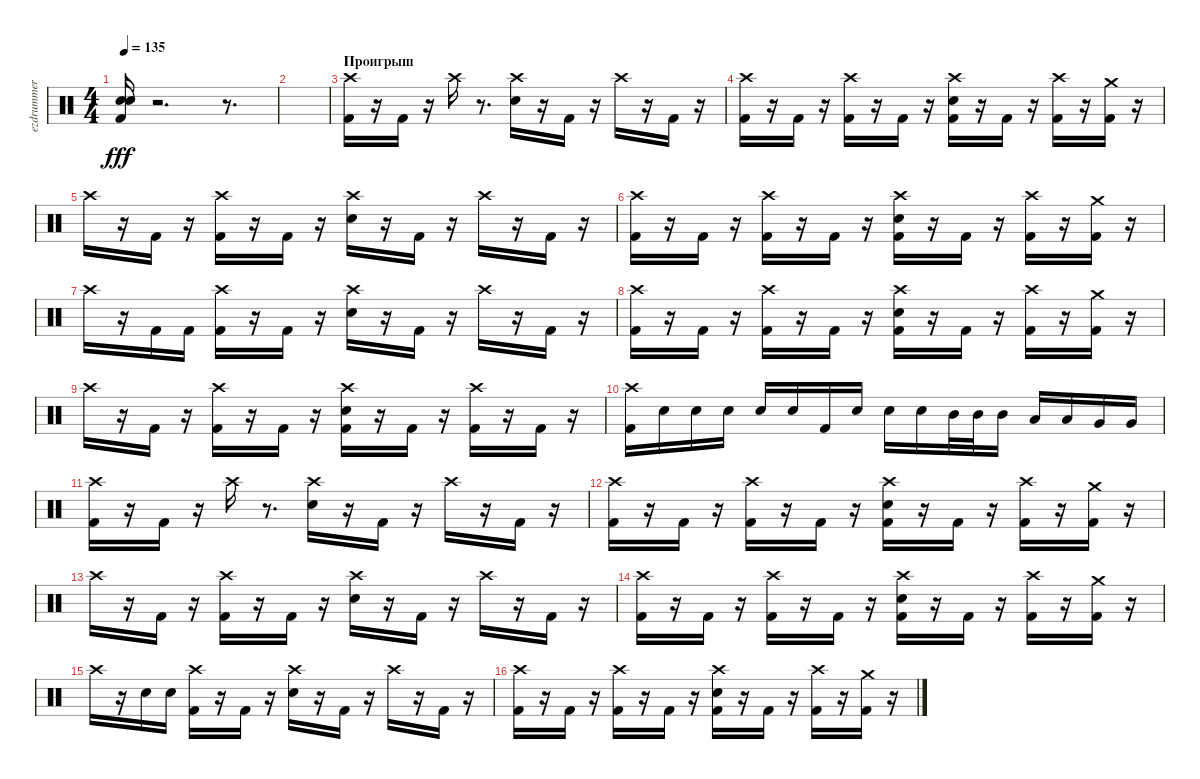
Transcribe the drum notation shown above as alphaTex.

\track ("ezdrummer 01" "ezdrummer ") {instrument percussion}
\staff {score}
\articulation defaults
\ts (4 4)
\tempo 135
\clef neutral
\ks c
("Snare (hit) 2" "Kick (hit) 2" "Snare (hit) 2").16{dy fff} r.2{d} r.8{d} |
|
\section ("" "Проигрыш")
("Kick (hit) 2" "Crash high (hit)").16 r.16 "Kick (hit) 2".16 r.16 "Crash high (hit)".16 r.8{d} ("Snare (hit) 2" "Crash high (hit)").16 r.16 "Kick (hit) 2".16 r.16 "Crash high (hit)".16 r.16 "Kick (hit) 2".16 r.16 |
("Kick (hit) 2" "Crash high (hit)").16 r.16 "Kick (hit) 2".16 r.16 ("Kick (hit) 2" "Crash high (hit)").16 r.16 "Kick (hit) 2".16 r.16 ("Kick (hit) 2" "Snare (hit) 2" "Crash high (hit)").16 r.16 "Kick (hit) 2".16 r.16 ("Kick (hit) 2" "Crash high (hit)").16 r.16 ("Kick (hit) 2" "Crash medium (hit)").16 r.16 |
"Crash high (hit)".16 r.16 "Kick (hit) 2".16 r.16 ("Kick (hit) 2" "Crash high (hit)").16 r.16 "Kick (hit) 2".16 r.16 ("Snare (hit) 2" "Crash high (hit)").16 r.16 "Kick (hit) 2".16 r.16 "Crash high (hit)".16 r.16 "Kick (hit) 2".16 r.16 |
("Kick (hit) 2" "Crash high (hit)").16 r.16 "Kick (hit) 2".16 r.16 ("Kick (hit) 2" "Crash high (hit)").16 r.16 "Kick (hit) 2".16 r.16 ("Kick (hit) 2" "Snare (hit) 2" "Crash high (hit)").16 r.16 "Kick (hit) 2".16 r.16 ("Kick (hit) 2" "Crash high (hit)").16 r.16 ("Kick (hit) 2" "Crash medium (hit)").16 r.16 |
"Crash high (hit)".16 r.16 "Kick (hit) 2".16 "Kick (hit) 2".16 ("Kick (hit) 2" "Crash high (hit)").16 r.16 "Kick (hit) 2".16 r.16 ("Snare (hit) 2" "Crash high (hit)").16 r.16 "Kick (hit) 2".16 r.16 "Crash high (hit)".16 r.16 "Kick (hit) 2".16 r.16 |
("Kick (hit) 2" "Crash high (hit)").16 r.16 "Kick (hit) 2".16 r.16 ("Kick (hit) 2" "Crash high (hit)").16 r.16 "Kick (hit) 2".16 r.16 ("Kick (hit) 2" "Snare (hit) 2" "Crash high (hit)").16 r.16 "Kick (hit) 2".16 r.16 ("Kick (hit) 2" "Crash high (hit)").16 r.16 ("Kick (hit) 2" "Crash medium (hit)").16 r.16 |
"Crash high (hit)".16 r.16 "Kick (hit) 2".16 r.16 ("Kick (hit) 2" "Crash high (hit)").16 r.16 "Kick (hit) 2".16 r.16 ("Kick (hit) 2" "Snare (hit) 2" "Crash high (hit)").16 r.16 "Kick (hit) 2".16 r.16 ("Kick (hit) 2" "Crash high (hit)").16 r.16 "Kick (hit) 2".16 r.16 |
("Kick (hit) 2" "Crash high (hit)").16 "Snare (hit) 2".16 "Snare (hit) 2".16 "Snare (hit) 2".16 "Snare (hit) 2".16 "Snare (hit) 2".16 "Kick (hit) 2".16 "Snare (hit) 2".16 "Snare (hit) 2".16 "Snare (hit) 2".16 "Mid Tom (hit)".32 "Mid Tom (hit)".32 "Mid Tom (hit)".16 "Low Tom (hit)".16 "Low Tom (hit)".16 "Very Low Tom (hit)".16 "Very Low Tom (hit)".16 |
("Kick (hit) 2" "Crash high (hit)").16 r.16 "Kick (hit) 2".16 r.16 "Crash high (hit)".16 r.8{d} ("Snare (hit) 2" "Crash high (hit)").16 r.16 "Kick (hit) 2".16 r.16 "Crash high (hit)".16 r.16 "Kick (hit) 2".16 r.16 |
("Kick (hit) 2" "Crash high (hit)").16 r.16 "Kick (hit) 2".16 r.16 ("Kick (hit) 2" "Crash high (hit)").16 r.16 "Kick (hit) 2".16 r.16 ("Kick (hit) 2" "Snare (hit) 2" "Crash high (hit)").16 r.16 "Kick (hit) 2".16 r.16 ("Kick (hit) 2" "Crash high (hit)").16 r.16 ("Kick (hit) 2" "Crash medium (hit)").16 r.16 |
"Crash high (hit)".16 r.16 "Kick (hit) 2".16 r.16 ("Kick (hit) 2" "Crash high (hit)").16 r.16 "Kick (hit) 2".16 r.16 ("Snare (hit) 2" "Crash high (hit)").16 r.16 "Kick (hit) 2".16 r.16 "Crash high (hit)".16 r.16 "Kick (hit) 2".16 r.16 |
("Kick (hit) 2" "Crash high (hit)").16 r.16 "Kick (hit) 2".16 r.16 ("Kick (hit) 2" "Crash high (hit)").16 r.16 "Kick (hit) 2".16 r.16 ("Kick (hit) 2" "Snare (hit) 2" "Crash high (hit)").16 r.16 "Kick (hit) 2".16 r.16 ("Kick (hit) 2" "Crash high (hit)").16 r.16 ("Kick (hit) 2" "Crash medium (hit)").16 r.16 |
"Crash high (hit)".16 r.16 "Snare (hit) 2".16 "Snare (hit) 2".16 ("Kick (hit) 2" "Crash high (hit)").16 r.16 "Kick (hit) 2".16 r.16 ("Snare (hit) 2" "Crash high (hit)").16 r.16 "Kick (hit) 2".16 r.16 "Crash high (hit)".16 r.16 "Kick (hit) 2".16 r.16 |
("Kick (hit) 2" "Crash high (hit)").16 r.16 "Kick (hit) 2".16 r.16 ("Kick (hit) 2" "Crash high (hit)").16 r.16 "Kick (hit) 2".16 r.16 ("Kick (hit) 2" "Snare (hit) 2" "Crash high (hit)").16 r.16 "Kick (hit) 2".16 r.16 ("Kick (hit) 2" "Crash high (hit)").16 r.16 ("Kick (hit) 2" "Crash medium (hit)").16 r.16
